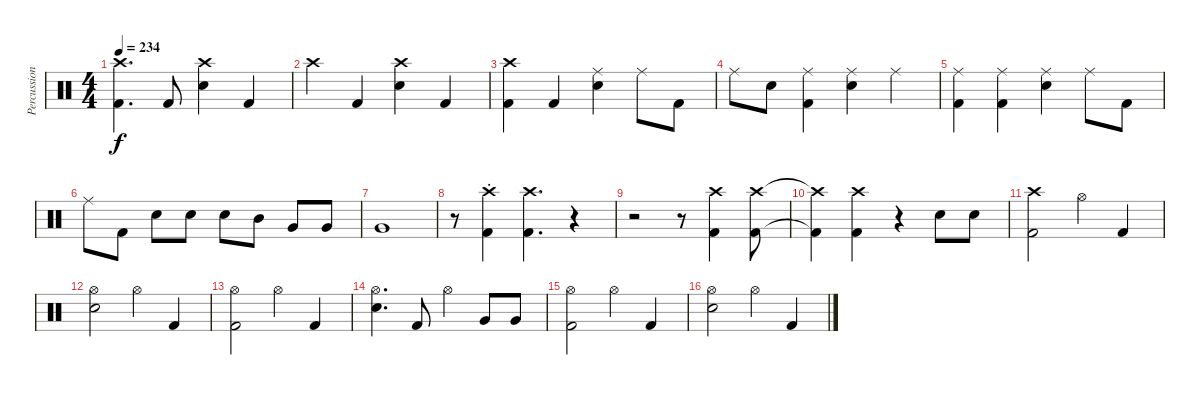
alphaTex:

\track ("Percussions" "Percussion") {instrument percussion}
\staff {score}
\articulation defaults
\ts (4 4)
\tempo 234
\clef neutral
\ks c
("Crash high (hit)" "Kick (hit) 2").4{d dy f} "Kick (hit) 2".8 ("Crash high (hit)" "Snare (hit) 2").4 "Kick (hit) 2".4 |
"Crash high (hit)".4 "Kick (hit) 2".4 ("Crash high (hit)" "Snare (hit) 2").4 "Kick (hit) 2".4 |
("Crash high (hit)" "Kick (hit) 2").4 "Kick (hit) 2".4 ("Ride (middle)" "Snare (hit) 2").4 "Ride (middle)".8 "Kick (hit) 2".8 |
"Ride (middle)".8 "Snare (hit) 2".8 ("Ride (middle)" "Kick (hit) 2").4 ("Ride (middle)" "Snare (hit) 2").4 "Ride (middle)".4 |
("Ride (middle)" "Kick (hit) 2").4 ("Ride (middle)" "Kick (hit) 2").4 ("Ride (middle)" "Snare (hit) 2").4 "Ride (middle)".8 "Kick (hit) 2".8 |
"Ride (middle)".8 "Kick (hit) 2".8 "Snare (hit) 2".8 "Snare (hit) 2".8 "Snare (hit) 2".8 "Mid Tom (hit)".8 "Very Low Tom (hit)".8 "Very Low Tom (hit)".8 |
"Very Low Tom (hit)".1 |
r.8 ("Crash high (hit)"{st} "Kick (hit) 2"{st}).4 ("Crash high (hit)" "Kick (hit) 2").4{d} r.4 |
r.2 r.8 ("Crash high (hit)" "Kick (hit) 2").4 ("Crash high (hit)" "Kick (hit) 2").8 |
("Crash high (hit)"{t} "Kick (hit) 2"{t}).4 ("Crash high (hit)" "Kick (hit) 2").4 r.4 "Snare (hit) 2".8 "Snare (hit) 2".8 |
("Crash high (hit)" "Kick (hit) 2").2 "Hi-Hat (open)".4 "Kick (hit) 2".4 |
("Hi-Hat (open)" "Snare (hit) 2").2 "Hi-Hat (open)".4 "Kick (hit) 2".4 |
("Hi-Hat (open)" "Kick (hit) 2").2 "Hi-Hat (open)".4 "Kick (hit) 2".4 |
("Hi-Hat (open)" "Snare (hit) 2").4{d} "Kick (hit) 2".8 "Hi-Hat (open)".4 "Very Low Tom (hit)".8 "Very Low Tom (hit)".8 |
("Hi-Hat (open)" "Kick (hit) 2").2 "Hi-Hat (open)".4 "Kick (hit) 2".4 |
("Hi-Hat (open)" "Snare (hit) 2").2 "Hi-Hat (open)".4 "Kick (hit) 2".4
